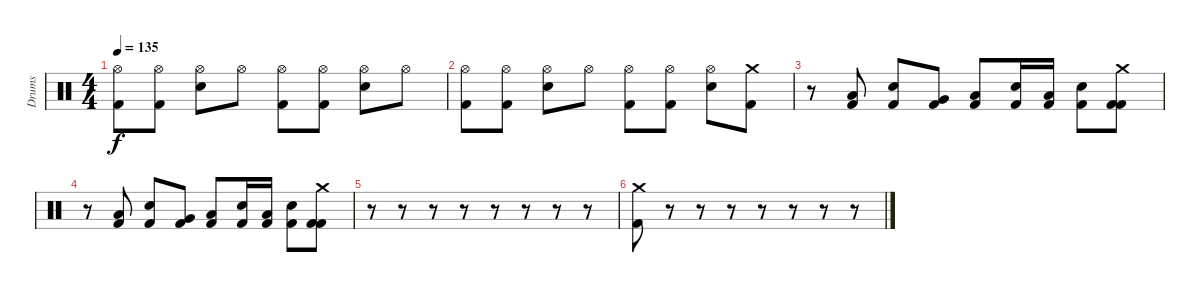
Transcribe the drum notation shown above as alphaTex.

\track ("Drums" "Drums") {instrument percussion}
\staff {score}
\articulation defaults
\ts (4 4)
\tempo 135
\clef neutral
\ks c
("Hi-Hat (open)" "Kick (hit) 2").8{dy f} ("Hi-Hat (open)" "Kick (hit) 2").8 ("Hi-Hat (open)" "Electric Snare (hit)").8 "Hi-Hat (open)".8 ("Hi-Hat (open)" "Kick (hit) 2").8 ("Hi-Hat (open)" "Kick (hit) 2").8 ("Hi-Hat (open)" "Electric Snare (hit)").8 "Hi-Hat (open)".8 |
("Hi-Hat (open)" "Kick (hit) 2").8 ("Hi-Hat (open)" "Kick (hit) 2").8 ("Hi-Hat (open)" "Electric Snare (hit)").8 "Hi-Hat (open)".8 ("Hi-Hat (open)" "Kick (hit) 2").8 ("Hi-Hat (open)" "Kick (hit) 2").8 ("Hi-Hat (open)" "Electric Snare (hit)").8 ("Crash medium (hit)" "Kick (hit) 2").8 |
r.8 ("Low Tom (hit)" "Kick (hit) 2").8 ("Electric Snare (hit)" "Kick (hit) 2").8 ("Very Low Tom (hit)" "Kick (hit) 2").8 ("Low Floor Tom (hit)" "Kick (hit) 2").8 ("Electric Snare (hit)" "Kick (hit) 2").16 ("Low Tom (hit)" "Kick (hit) 2").16 ("Electric Snare (hit)" "Kick (hit) 2").8 ("Crash medium (hit)" "Kick (hit) 2" "Kick (hit) 2").8 |
r.8 ("Low Tom (hit)" "Kick (hit) 2").8 ("Electric Snare (hit)" "Kick (hit) 2").8 ("Very Low Tom (hit)" "Kick (hit) 2").8 ("Low Floor Tom (hit)" "Kick (hit) 2").8 ("Electric Snare (hit)" "Kick (hit) 2").16 ("Low Tom (hit)" "Kick (hit) 2").16 ("Electric Snare (hit)" "Kick (hit) 2").8 ("Crash medium (hit)" "Kick (hit) 2" "Kick (hit) 2").8 |
r.8 r.8 r.8 r.8 r.8 r.8 r.8 r.8 |
("Crash medium (hit)" "Kick (hit) 2").8 r.8 r.8 r.8 r.8 r.8 r.8 r.8
